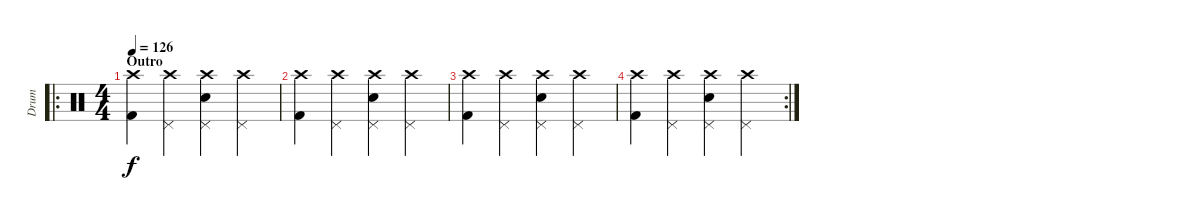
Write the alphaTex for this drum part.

\track ("Drum" "Drum") {instrument percussion}
\staff {score}
\articulation defaults
\ro
\ts (4 4)
\section ("" "Outro")
\tempo 126
\clef neutral
\ks c
("Crash high (hit)" "Kick (hit) 2").4{dy f} ("Pedal Hi-Hat (hit)" "Crash high (hit)").4 ("Pedal Hi-Hat (hit)" "Crash high (hit)" "Electric Snare (hit)").4 ("Pedal Hi-Hat (hit)" "Crash high (hit)").4 |
("Crash high (hit)" "Kick (hit) 2").4 ("Pedal Hi-Hat (hit)" "Crash high (hit)").4 ("Pedal Hi-Hat (hit)" "Crash high (hit)" "Electric Snare (hit)").4 ("Pedal Hi-Hat (hit)" "Crash high (hit)").4 |
("Crash high (hit)" "Kick (hit) 2").4 ("Pedal Hi-Hat (hit)" "Crash high (hit)").4 ("Pedal Hi-Hat (hit)" "Crash high (hit)" "Electric Snare (hit)").4 ("Pedal Hi-Hat (hit)" "Crash high (hit)").4 |
\rc 2
("Crash high (hit)" "Kick (hit) 2").4 ("Pedal Hi-Hat (hit)" "Crash high (hit)").4 ("Pedal Hi-Hat (hit)" "Crash high (hit)" "Electric Snare (hit)").4 ("Pedal Hi-Hat (hit)" "Crash high (hit)").4
